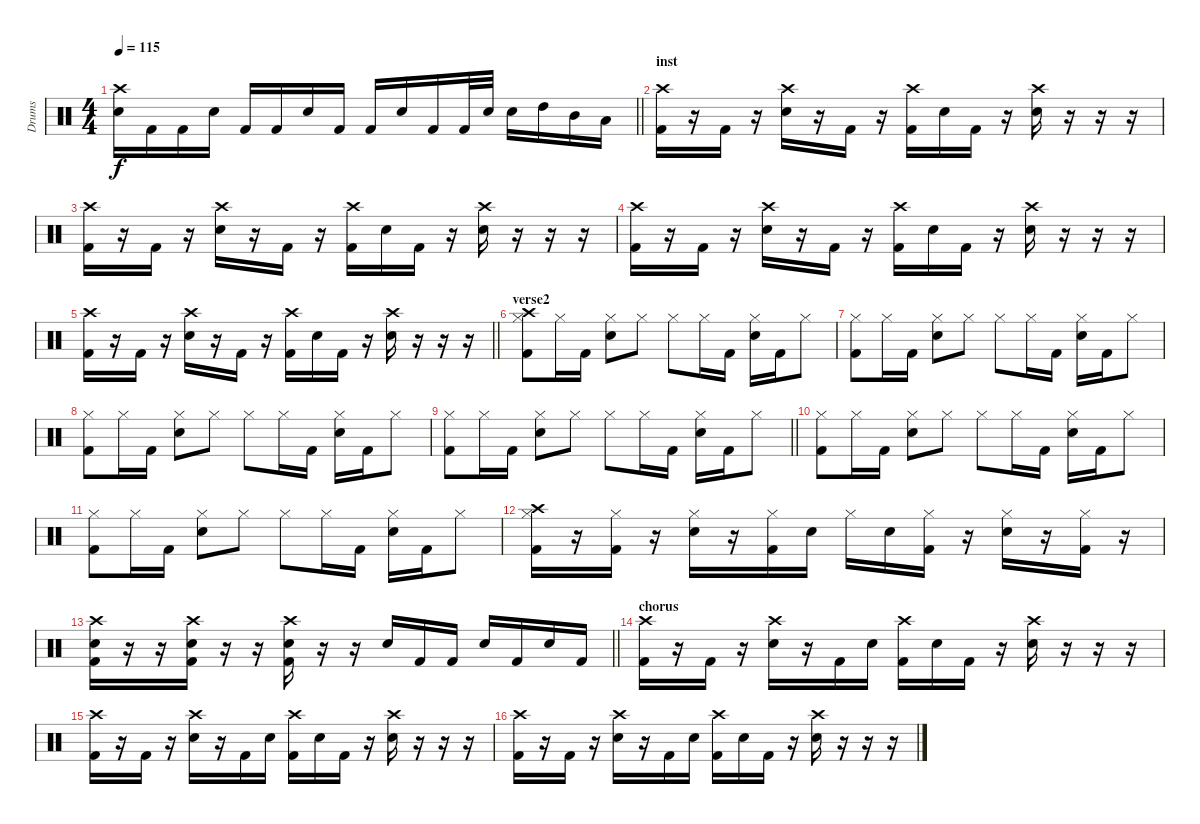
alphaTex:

\track ("Drums" "Drums") {instrument percussion}
\staff {score}
\articulation defaults
\ts (4 4)
\tempo 115
\clef neutral
\barLineRight lightlight
\ks c
("Crash high (hit)" "Snare (hit) 2").16{dy f} "Kick (hit) 2".16 "Kick (hit) 2".16 "Snare (hit) 2".16 "Kick (hit) 2".16 "Kick (hit) 2".16 "Snare (hit) 2".16 "Kick (hit) 2".16 "Kick (hit) 2".16 "Snare (hit) 2".16 "Kick (hit) 2".16 "Kick (hit) 2".32 "Snare (hit) 2".32 "Snare (hit) 2".16 "High Tom (hit)".16 "Mid Tom (hit)".16 "Low Tom (hit)".16 |
\section ("" "inst")
("Crash high (hit)" "Kick (hit) 2").16 r.16 "Kick (hit) 2".16 r.16 ("Crash high (hit)" "Snare (hit) 2").16 r.16 "Kick (hit) 2".16 r.16 ("Crash high (hit)" "Kick (hit) 2").16 "Snare (hit) 2".16 "Kick (hit) 2".16 r.16 ("Crash high (hit)" "Snare (hit) 2").16 r.16 r.16 r.16 |
("Crash high (hit)" "Kick (hit) 2").16 r.16 "Kick (hit) 2".16 r.16 ("Crash high (hit)" "Snare (hit) 2").16 r.16 "Kick (hit) 2".16 r.16 ("Crash high (hit)" "Kick (hit) 2").16 "Snare (hit) 2".16 "Kick (hit) 2".16 r.16 ("Crash high (hit)" "Snare (hit) 2").16 r.16 r.16 r.16 |
("Crash high (hit)" "Kick (hit) 2").16 r.16 "Kick (hit) 2".16 r.16 ("Crash high (hit)" "Snare (hit) 2").16 r.16 "Kick (hit) 2".16 r.16 ("Crash high (hit)" "Kick (hit) 2").16 "Snare (hit) 2".16 "Kick (hit) 2".16 r.16 ("Crash high (hit)" "Snare (hit) 2").16 r.16 r.16 r.16 |
\barLineRight lightlight
("Crash high (hit)" "Kick (hit) 2").16 r.16 "Kick (hit) 2".16 r.16 ("Crash high (hit)" "Snare (hit) 2").16 r.16 "Kick (hit) 2".16 r.16 ("Crash high (hit)" "Kick (hit) 2").16 "Snare (hit) 2".16 "Kick (hit) 2".16 r.16 ("Crash high (hit)" "Snare (hit) 2").16 r.16 r.16 r.16 |
\section ("" "verse2")
("Crash high (hit)" "Hi-Hat (closed)" "Kick (hit) 2").8 "Hi-Hat (closed)".16 "Kick (hit) 2".16 ("Hi-Hat (closed)" "Snare (hit) 2").8 "Hi-Hat (closed)".8 "Hi-Hat (closed)".8 "Hi-Hat (closed)".16 "Kick (hit) 2".16 ("Hi-Hat (closed)" "Snare (hit) 2").16 "Kick (hit) 2".16 "Hi-Hat (closed)".8 |
("Hi-Hat (closed)" "Kick (hit) 2").8 "Hi-Hat (closed)".16 "Kick (hit) 2".16 ("Hi-Hat (closed)" "Snare (hit) 2").8 "Hi-Hat (closed)".8 "Hi-Hat (closed)".8 "Hi-Hat (closed)".16 "Kick (hit) 2".16 ("Hi-Hat (closed)" "Snare (hit) 2").16 "Kick (hit) 2".16 "Hi-Hat (closed)".8 |
("Hi-Hat (closed)" "Kick (hit) 2").8 "Hi-Hat (closed)".16 "Kick (hit) 2".16 ("Hi-Hat (closed)" "Snare (hit) 2").8 "Hi-Hat (closed)".8 "Hi-Hat (closed)".8 "Hi-Hat (closed)".16 "Kick (hit) 2".16 ("Hi-Hat (closed)" "Snare (hit) 2").16 "Kick (hit) 2".16 "Hi-Hat (closed)".8 |
\barLineRight lightlight
("Hi-Hat (closed)" "Kick (hit) 2").8 "Hi-Hat (closed)".16 "Kick (hit) 2".16 ("Hi-Hat (closed)" "Snare (hit) 2").8 "Hi-Hat (closed)".8 "Hi-Hat (closed)".8 "Hi-Hat (closed)".16 "Kick (hit) 2".16 ("Hi-Hat (closed)" "Snare (hit) 2").16 "Kick (hit) 2".16 "Hi-Hat (closed)".8 |
("Hi-Hat (closed)" "Kick (hit) 2").8 "Hi-Hat (closed)".16 "Kick (hit) 2".16 ("Hi-Hat (closed)" "Snare (hit) 2").8 "Hi-Hat (closed)".8 "Hi-Hat (closed)".8 "Hi-Hat (closed)".16 "Kick (hit) 2".16 ("Hi-Hat (closed)" "Snare (hit) 2").16 "Kick (hit) 2".16 "Hi-Hat (closed)".8 |
("Hi-Hat (closed)" "Kick (hit) 2").8 "Hi-Hat (closed)".16 "Kick (hit) 2".16 ("Hi-Hat (closed)" "Snare (hit) 2").8 "Hi-Hat (closed)".8 "Hi-Hat (closed)".8 "Hi-Hat (closed)".16 "Kick (hit) 2".16 ("Hi-Hat (closed)" "Snare (hit) 2").16 "Kick (hit) 2".16 "Hi-Hat (closed)".8 |
("Crash high (hit)" "Hi-Hat (closed)" "Kick (hit) 2").16 r.16 ("Hi-Hat (closed)" "Kick (hit) 2").16 r.16 ("Hi-Hat (closed)" "Snare (hit) 2").16 r.16 ("Hi-Hat (closed)" "Kick (hit) 2").16 "Snare (hit) 2".16 "Hi-Hat (closed)".16 "Snare (hit) 2".16 ("Hi-Hat (closed)" "Kick (hit) 2").16 r.16 ("Hi-Hat (closed)" "Snare (hit) 2").16 r.16 ("Hi-Hat (closed)" "Kick (hit) 2").16 r.16 |
\barLineRight lightlight
("Crash high (hit)" "Snare (hit) 2" "Kick (hit) 2").16 r.16 r.16 ("Crash high (hit)" "Snare (hit) 2" "Kick (hit) 2").16 r.16 r.16 ("Crash high (hit)" "Snare (hit) 2" "Kick (hit) 2").16 r.16 r.16 "Snare (hit) 2".16 "Kick (hit) 2".16 "Kick (hit) 2".16 "Snare (hit) 2".16 "Kick (hit) 2".16 "Snare (hit) 2".16 "Kick (hit) 2".16 |
\section ("" "chorus")
("Crash high (hit)" "Kick (hit) 2").16 r.16 "Kick (hit) 2".16 r.16 ("Crash high (hit)" "Snare (hit) 2").16 r.16 "Kick (hit) 2".16 "Snare (hit) 2".16 ("Crash high (hit)" "Kick (hit) 2").16 "Snare (hit) 2".16 "Kick (hit) 2".16 r.16 ("Crash high (hit)" "Snare (hit) 2").16 r.16 r.16 r.16 |
("Crash high (hit)" "Kick (hit) 2").16 r.16 "Kick (hit) 2".16 r.16 ("Crash high (hit)" "Snare (hit) 2").16 r.16 "Kick (hit) 2".16 "Snare (hit) 2".16 ("Crash high (hit)" "Kick (hit) 2").16 "Snare (hit) 2".16 "Kick (hit) 2".16 r.16 ("Crash high (hit)" "Snare (hit) 2").16 r.16 r.16 r.16 |
("Crash high (hit)" "Kick (hit) 2").16 r.16 "Kick (hit) 2".16 r.16 ("Crash high (hit)" "Snare (hit) 2").16 r.16 "Kick (hit) 2".16 "Snare (hit) 2".16 ("Crash high (hit)" "Kick (hit) 2").16 "Snare (hit) 2".16 "Kick (hit) 2".16 r.16 ("Crash high (hit)" "Snare (hit) 2").16 r.16 r.16 r.16
